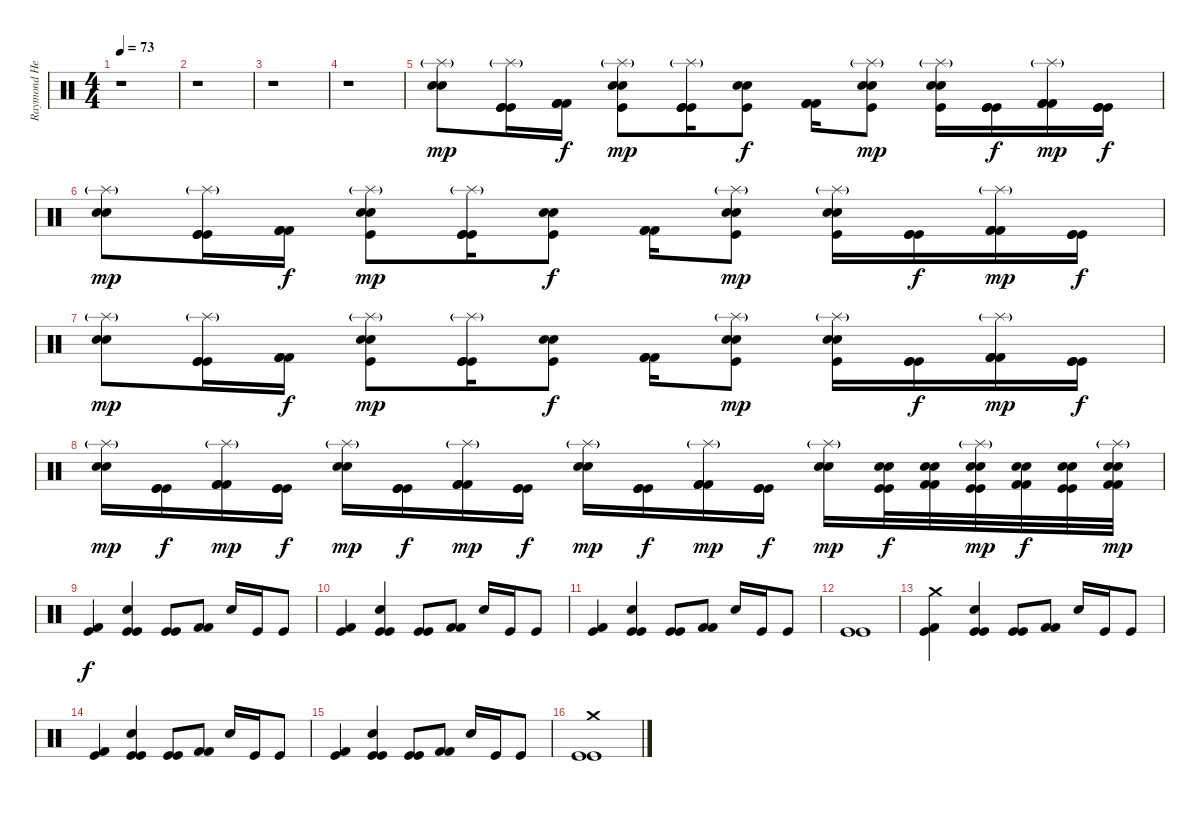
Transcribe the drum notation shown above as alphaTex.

\track ("Raymond Herrera" "Raymond He") {instrument percussion}
\staff {score}
\articulation defaults
\ts (4 4)
\tempo 73
\clef neutral
\ks c
r.1{dy mp} |
r.1 |
r.1 |
r.1 |
("Splash (hit)"{g} "Electric Snare (hit)" "Electric Snare (hit)").8 ("Splash (hit)"{g} "Kick (hit)" "Kick (hit)" "Kick (hit)").16 ("Kick (hit) 2" "Kick (hit) 2" "Kick (hit) 2").16{dy f} ("Splash (hit)"{g} "Electric Snare (hit)" "Electric Snare (hit)" "Kick (hit)").8{dy mp} ("Splash (hit)"{g} "Kick (hit)" "Kick (hit)" "Kick (hit)").16 ("Electric Snare (hit)" "Electric Snare (hit)" "Kick (hit)").8{dy f} ("Kick (hit) 2" "Kick (hit) 2" "Kick (hit) 2").16 ("Splash (hit)"{g} "Electric Snare (hit)" "Electric Snare (hit)" "Kick (hit)").8{dy mp} ("Splash (hit)"{g} "Electric Snare (hit)" "Electric Snare (hit)" "Kick (hit)").16 ("Kick (hit)" "Kick (hit)" "Kick (hit)").16{dy f} ("Splash (hit)"{g} "Kick (hit) 2" "Kick (hit) 2" "Kick (hit) 2").16{dy mp} ("Kick (hit)" "Kick (hit)" "Kick (hit)").16{dy f} |
("Splash (hit)"{g} "Electric Snare (hit)" "Electric Snare (hit)").8{dy mp} ("Splash (hit)"{g} "Kick (hit)" "Kick (hit)" "Kick (hit)").16 ("Kick (hit) 2" "Kick (hit) 2" "Kick (hit) 2").16{dy f} ("Splash (hit)"{g} "Electric Snare (hit)" "Electric Snare (hit)" "Kick (hit)").8{dy mp} ("Splash (hit)"{g} "Kick (hit)" "Kick (hit)" "Kick (hit)").16 ("Electric Snare (hit)" "Electric Snare (hit)" "Kick (hit)").8{dy f} ("Kick (hit) 2" "Kick (hit) 2" "Kick (hit) 2").16 ("Splash (hit)"{g} "Electric Snare (hit)" "Electric Snare (hit)" "Kick (hit)").8{dy mp} ("Splash (hit)"{g} "Electric Snare (hit)" "Electric Snare (hit)" "Kick (hit)").16 ("Kick (hit)" "Kick (hit)" "Kick (hit)").16{dy f} ("Splash (hit)"{g} "Kick (hit) 2" "Kick (hit) 2" "Kick (hit) 2").16{dy mp} ("Kick (hit)" "Kick (hit)" "Kick (hit)").16{dy f} |
("Splash (hit)"{g} "Electric Snare (hit)" "Electric Snare (hit)").8{dy mp} ("Splash (hit)"{g} "Kick (hit)" "Kick (hit)" "Kick (hit)").16 ("Kick (hit) 2" "Kick (hit) 2" "Kick (hit) 2").16{dy f} ("Splash (hit)"{g} "Electric Snare (hit)" "Electric Snare (hit)" "Kick (hit)").8{dy mp} ("Splash (hit)"{g} "Kick (hit)" "Kick (hit)" "Kick (hit)").16 ("Electric Snare (hit)" "Electric Snare (hit)" "Kick (hit)").8{dy f} ("Kick (hit) 2" "Kick (hit) 2" "Kick (hit) 2").16 ("Splash (hit)"{g} "Electric Snare (hit)" "Electric Snare (hit)" "Kick (hit)").8{dy mp} ("Splash (hit)"{g} "Electric Snare (hit)" "Electric Snare (hit)" "Kick (hit)").16 ("Kick (hit)" "Kick (hit)" "Kick (hit)").16{dy f} ("Splash (hit)"{g} "Kick (hit) 2" "Kick (hit) 2" "Kick (hit) 2").16{dy mp} ("Kick (hit)" "Kick (hit)" "Kick (hit)").16{dy f} |
("Splash (hit)"{g} "Electric Snare (hit)" "Electric Snare (hit)").16{dy mp} ("Kick (hit)" "Kick (hit)" "Kick (hit)").16{dy f} ("Splash (hit)"{g} "Kick (hit) 2" "Kick (hit) 2" "Kick (hit) 2").16{dy mp} ("Kick (hit)" "Kick (hit)" "Kick (hit)").16{dy f} ("Splash (hit)"{g} "Electric Snare (hit)" "Electric Snare (hit)").16{dy mp} ("Kick (hit)" "Kick (hit)" "Kick (hit)").16{dy f} ("Splash (hit)"{g} "Kick (hit) 2" "Kick (hit) 2" "Kick (hit) 2").16{dy mp} ("Kick (hit)" "Kick (hit)" "Kick (hit)").16{dy f} ("Splash (hit)"{g} "Electric Snare (hit)" "Electric Snare (hit)").16{dy mp} ("Kick (hit)" "Kick (hit)" "Kick (hit)").16{dy f} ("Splash (hit)"{g} "Kick (hit) 2" "Kick (hit) 2" "Kick (hit) 2").16{dy mp} ("Kick (hit)" "Kick (hit)" "Kick (hit)").16{dy f} ("Splash (hit)"{g} "Electric Snare (hit)" "Electric Snare (hit)").16{dy mp} ("Electric Snare (hit)" "Electric Snare (hit)" "Kick (hit)" "Kick (hit)").32{dy f} ("Electric Snare (hit)" "Electric Snare (hit)" "Kick (hit) 2" "Kick (hit) 2").32 ("Splash (hit)"{g} "Electric Snare (hit)" "Electric Snare (hit)" "Kick (hit)" "Kick (hit)").32{dy mp} ("Electric Snare (hit)" "Electric Snare (hit)" "Kick (hit) 2" "Kick (hit) 2").32{dy f} ("Electric Snare (hit)" "Electric Snare (hit)" "Kick (hit)" "Kick (hit)").32 ("Splash (hit)"{g} "Electric Snare (hit)" "Electric Snare (hit)" "Kick (hit) 2" "Kick (hit) 2").32{dy mp} |
("Kick (hit) 2" "Kick (hit)").4{dy f} ("Electric Snare (hit)" "Kick (hit)" "Kick (hit)").4 ("Kick (hit)" "Kick (hit)").8 ("Kick (hit) 2" "Kick (hit) 2").8 "Electric Snare (hit)".16 "Kick (hit)".16 "Kick (hit)".8 |
("Kick (hit) 2" "Kick (hit)").4 ("Electric Snare (hit)" "Kick (hit)" "Kick (hit)").4 ("Kick (hit)" "Kick (hit)").8 ("Kick (hit) 2" "Kick (hit) 2").8 "Electric Snare (hit)".16 "Kick (hit)".16 "Kick (hit)".8 |
("Kick (hit) 2" "Kick (hit)").4 ("Electric Snare (hit)" "Kick (hit)" "Kick (hit)").4 ("Kick (hit)" "Kick (hit)").8 ("Kick (hit) 2" "Kick (hit) 2").8 "Electric Snare (hit)".16 "Kick (hit)".16 "Kick (hit)".8 |
("Kick (hit)" "Kick (hit)").1 |
("Crash medium (hit)" "Kick (hit) 2" "Kick (hit)").4 ("Electric Snare (hit)" "Kick (hit)" "Kick (hit)").4 ("Kick (hit)" "Kick (hit)").8 ("Kick (hit) 2" "Kick (hit) 2").8 "Electric Snare (hit)".16 "Kick (hit)".16 "Kick (hit)".8 |
("Kick (hit) 2" "Kick (hit)").4 ("Electric Snare (hit)" "Kick (hit)" "Kick (hit)").4 ("Kick (hit)" "Kick (hit)").8 ("Kick (hit) 2" "Kick (hit) 2").8 "Electric Snare (hit)".16 "Kick (hit)".16 "Kick (hit)".8 |
("Kick (hit) 2" "Kick (hit)").4 ("Electric Snare (hit)" "Kick (hit)" "Kick (hit)").4 ("Kick (hit)" "Kick (hit)").8 ("Kick (hit) 2" "Kick (hit) 2").8 "Electric Snare (hit)".16 "Kick (hit)".16 "Kick (hit)".8 |
("Crash medium (hit)" "Kick (hit)" "Kick (hit)").1
